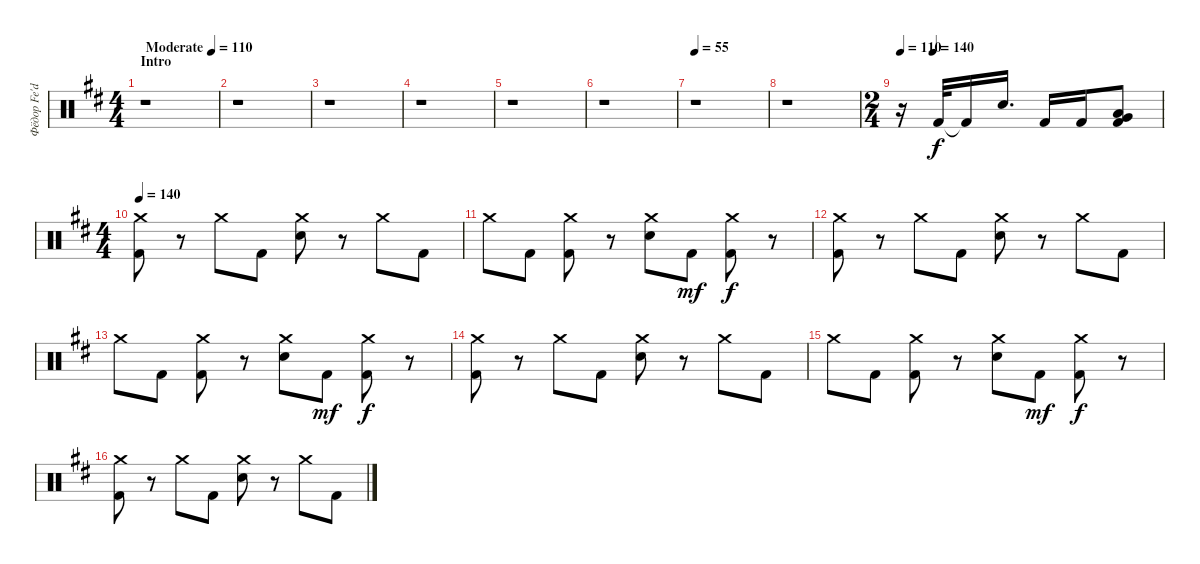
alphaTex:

\track ("Фёдор Fe'dor Локшин" "Фёдор Fe'd") {instrument percussion}
\staff {score}
\articulation defaults
\ts (4 4)
\section ("" "Intro")
\tempo (110 "Moderate")
\clef neutral
\ks bminor
r.1{dy f} |
r.1 |
r.1 |
r.1 |
r.1 |
r.1 |
\tempo 55
r.1 |
r.1 |
\ts (2 4)
\tempo 110
\tempo (140 0.125)
r.16 "Kick (hit) 2".32 "Kick (hit) 2"{t}.16 "Snare (hit) 2".16{d} "Kick (hit) 2".16 "Kick (hit) 2".16 ("Very Low Tom (hit)" "Low Floor Tom (hit)" "Kick (hit) 2").8 |
\ts (4 4)
\tempo 140
("Crash medium (hit)" "Kick (hit) 2").8 r.8 "Crash medium (hit)".8 "Kick (hit) 2".8 ("Crash medium (hit)" "Snare (hit) 2").8 r.8 "Crash medium (hit)".8 "Kick (hit) 2".8 |
"Crash medium (hit)".8 "Kick (hit) 2".8 ("Crash medium (hit)" "Kick (hit) 2").8 r.8 ("Crash medium (hit)" "Snare (hit) 2").8 "Kick (hit) 2".8{dy mf} ("Crash medium (hit)" "Kick (hit) 2").8{dy f} r.8 |
("Crash medium (hit)" "Kick (hit) 2").8 r.8 "Crash medium (hit)".8 "Kick (hit) 2".8 ("Crash medium (hit)" "Snare (hit) 2").8 r.8 "Crash medium (hit)".8 "Kick (hit) 2".8 |
"Crash medium (hit)".8 "Kick (hit) 2".8 ("Crash medium (hit)" "Kick (hit) 2").8 r.8 ("Crash medium (hit)" "Snare (hit) 2").8 "Kick (hit) 2".8{dy mf} ("Crash medium (hit)" "Kick (hit) 2").8{dy f} r.8 |
("Crash medium (hit)" "Kick (hit) 2").8 r.8 "Crash medium (hit)".8 "Kick (hit) 2".8 ("Crash medium (hit)" "Snare (hit) 2").8 r.8 "Crash medium (hit)".8 "Kick (hit) 2".8 |
"Crash medium (hit)".8 "Kick (hit) 2".8 ("Crash medium (hit)" "Kick (hit) 2").8 r.8 ("Crash medium (hit)" "Snare (hit) 2").8 "Kick (hit) 2".8{dy mf} ("Crash medium (hit)" "Kick (hit) 2").8{dy f} r.8 |
("Crash medium (hit)" "Kick (hit) 2").8 r.8 "Crash medium (hit)".8 "Kick (hit) 2".8 ("Crash medium (hit)" "Snare (hit) 2").8 r.8 "Crash medium (hit)".8 "Kick (hit) 2".8
